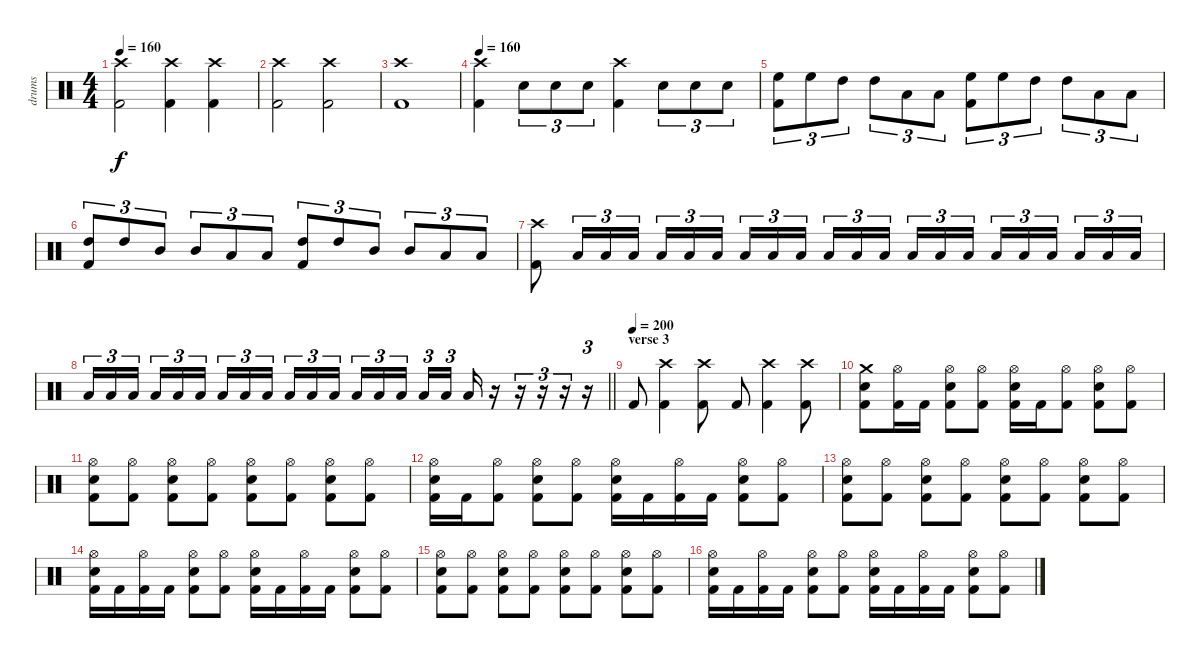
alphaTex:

\track ("drums" "drums") {instrument percussion}
\staff {score}
\articulation defaults
\ts (4 4)
\tempo 160
\clef neutral
\ks c
("Crash high (hit)" "Kick (hit) 2").2{dy f} ("Crash high (hit)" "Kick (hit) 2").4 ("Crash high (hit)" "Kick (hit) 2").4 |
("Crash high (hit)" "Kick (hit) 2").2 ("Crash high (hit)" "Kick (hit) 2").2 |
("Crash high (hit)" "Kick (hit) 2").1 |
\tempo 160
("Crash high (hit)" "Kick (hit) 2").4 "Snare (hit) 2".8{tu (3 2)} "Snare (hit) 2".8{tu (3 2)} "Snare (hit) 2".8{tu (3 2)} ("Crash high (hit)" "Kick (hit) 2").4 "Snare (hit) 2".8{tu (3 2)} "Snare (hit) 2".8{tu (3 2)} "Snare (hit) 2".8{tu (3 2)} |
("High Floor Tom (hit)" "Kick (hit) 2").8{tu (3 2)} "High Floor Tom (hit)".8{tu (3 2)} "High Tom (hit)".8{tu (3 2)} "High Tom (hit)".8{tu (3 2)} "Low Tom (hit)".8{tu (3 2)} "Low Tom (hit)".8{tu (3 2)} ("High Floor Tom (hit)" "Kick (hit) 2").8{tu (3 2)} "High Floor Tom (hit)".8{tu (3 2)} "High Tom (hit)".8{tu (3 2)} "High Tom (hit)".8{tu (3 2)} "Low Tom (hit)".8{tu (3 2)} "Low Tom (hit)".8{tu (3 2)} |
("High Tom (hit)" "Kick (hit) 2").8{tu (3 2)} "High Tom (hit)".8{tu (3 2)} "Mid Tom (hit)".8{tu (3 2)} "Mid Tom (hit)".8{tu (3 2)} "Low Tom (hit)".8{tu (3 2)} "Low Tom (hit)".8{tu (3 2)} ("High Tom (hit)" "Kick (hit) 2").8{tu (3 2)} "High Tom (hit)".8{tu (3 2)} "Mid Tom (hit)".8{tu (3 2)} "Mid Tom (hit)".8{tu (3 2)} "Low Tom (hit)".8{tu (3 2)} "Low Tom (hit)".8{tu (3 2)} |
("Crash high (hit)" "Kick (hit) 2").8 "Low Tom (hit)".16{tu (3 2) volume 3} "Low Tom (hit)".16{tu (3 2) volume 4} "Low Tom (hit)".16{tu (3 2) volume 5} "Low Tom (hit)".16{tu (3 2) volume 6} "Low Tom (hit)".16{tu (3 2) volume 7} "Low Tom (hit)".16{tu (3 2) volume 8 beam splitsecondary} "Low Tom (hit)".16{tu (3 2) volume 9} "Low Tom (hit)".16{tu (3 2) volume 10} "Low Tom (hit)".16{tu (3 2) volume 11} "Low Tom (hit)".16{tu (3 2)} "Low Tom (hit)".16{tu (3 2)} "Low Tom (hit)".16{tu (3 2) beam splitsecondary} "Low Tom (hit)".16{tu (3 2)} "Low Tom (hit)".16{tu (3 2)} "Low Tom (hit)".16{tu (3 2)} "Low Tom (hit)".16{tu (3 2)} "Low Tom (hit)".16{tu (3 2)} "Low Tom (hit)".16{tu (3 2) beam splitsecondary} "Low Tom (hit)".16{tu (3 2)} "Low Tom (hit)".16{tu (3 2)} "Low Tom (hit)".16{tu (3 2)} |
\barLineRight lightlight "Low Tom (hit)".16{tu (3 2)} "Low Tom (hit)".16{tu (3 2)} "Low Tom (hit)".16{tu (3 2) beam splitsecondary} "Low Tom (hit)".16{tu (3 2)} "Low Tom (hit)".16{tu (3 2)} "Low Tom (hit)".16{tu (3 2)} "Low Tom (hit)".16{tu (3 2)} "Low Tom (hit)".16{tu (3 2)} "Low Tom (hit)".16{tu (3 2) beam splitsecondary} "Low Tom (hit)".16{tu (3 2)} "Low Tom (hit)".16{tu (3 2)} "Low Tom (hit)".16{tu (3 2)} "Low Tom (hit)".16{tu (3 2)} "Low Tom (hit)".16{tu (3 2)} "Low Tom (hit)".16{tu (3 2) beam splitsecondary} "Low Tom (hit)".16{tu (3 2)} "Low Tom (hit)".16{tu (3 2) beam splitsecondary} "Low Tom (hit)".16
r.16 r.16{tu (3 2)} r.16{tu (3 2)} r.16{tu (3 2)} r.16{tu (3 2)} |
\section ("" "verse 3")
\tempo 120
\tempo (200)
"Kick (hit) 2".8 ("Crash high (hit)" "Kick (hit) 2").4 ("Crash high (hit)" "Kick (hit) 2").8 "Kick (hit) 2".8 ("Crash high (hit)" "Kick (hit) 2").4 ("Crash high (hit)" "Kick (hit) 2").8 |
("Crash medium (hit)" "Snare (hit) 2" "Kick (hit) 2").8 ("Hi-Hat (open)" "Kick (hit) 2").16 "Kick (hit) 2".16 ("Hi-Hat (open)" "Snare (hit) 2" "Kick (hit) 2").8 ("Hi-Hat (open)" "Kick (hit) 2").8 ("Hi-Hat (open)" "Snare (hit) 2" "Kick (hit) 2").16 "Kick (hit) 2".16 ("Hi-Hat (open)" "Kick (hit) 2").8 ("Hi-Hat (open)" "Snare (hit) 2" "Kick (hit) 2").8 ("Hi-Hat (open)" "Kick (hit) 2").8 |
("Hi-Hat (open)" "Snare (hit) 2" "Kick (hit) 2").8 ("Hi-Hat (open)" "Kick (hit) 2").8 ("Hi-Hat (open)" "Snare (hit) 2" "Kick (hit) 2").8 ("Hi-Hat (open)" "Kick (hit) 2").8 ("Hi-Hat (open)" "Snare (hit) 2" "Kick (hit) 2").8 ("Hi-Hat (open)" "Kick (hit) 2").8 ("Hi-Hat (open)" "Snare (hit) 2" "Kick (hit) 2").8 ("Hi-Hat (open)" "Kick (hit) 2").8 |
("Hi-Hat (open)" "Snare (hit) 2" "Kick (hit) 2").16 "Kick (hit) 2".16 ("Hi-Hat (open)" "Kick (hit) 2").8 ("Hi-Hat (open)" "Snare (hit) 2" "Kick (hit) 2").8 ("Hi-Hat (open)" "Kick (hit) 2").8 ("Hi-Hat (open)" "Snare (hit) 2" "Kick (hit) 2").16 "Kick (hit) 2".16 ("Hi-Hat (open)" "Kick (hit) 2").16 "Kick (hit) 2".16 ("Hi-Hat (open)" "Snare (hit) 2" "Kick (hit) 2").8 ("Hi-Hat (open)" "Kick (hit) 2").8 |
("Hi-Hat (open)" "Snare (hit) 2" "Kick (hit) 2").8 ("Hi-Hat (open)" "Kick (hit) 2").8 ("Hi-Hat (open)" "Snare (hit) 2" "Kick (hit) 2").8 ("Hi-Hat (open)" "Kick (hit) 2").8 ("Hi-Hat (open)" "Snare (hit) 2" "Kick (hit) 2").8 ("Hi-Hat (open)" "Kick (hit) 2").8 ("Hi-Hat (open)" "Snare (hit) 2" "Kick (hit) 2").8 ("Hi-Hat (open)" "Kick (hit) 2").8 |
("Hi-Hat (open)" "Snare (hit) 2" "Kick (hit) 2").16 "Kick (hit) 2".16 ("Hi-Hat (open)" "Kick (hit) 2").16 "Kick (hit) 2".16 ("Hi-Hat (open)" "Snare (hit) 2" "Kick (hit) 2").8 ("Hi-Hat (open)" "Kick (hit) 2").8 ("Hi-Hat (open)" "Snare (hit) 2" "Kick (hit) 2").16 "Kick (hit) 2".16 ("Hi-Hat (open)" "Kick (hit) 2").16 "Kick (hit) 2".16 ("Hi-Hat (open)" "Snare (hit) 2" "Kick (hit) 2").8 ("Hi-Hat (open)" "Kick (hit) 2").8 |
("Hi-Hat (open)" "Snare (hit) 2" "Kick (hit) 2").8 ("Hi-Hat (open)" "Kick (hit) 2").8 ("Hi-Hat (open)" "Snare (hit) 2" "Kick (hit) 2").8 ("Hi-Hat (open)" "Kick (hit) 2").8 ("Hi-Hat (open)" "Snare (hit) 2" "Kick (hit) 2").8 ("Hi-Hat (open)" "Kick (hit) 2").8 ("Hi-Hat (open)" "Snare (hit) 2" "Kick (hit) 2").8 ("Hi-Hat (open)" "Kick (hit) 2").8 |
("Hi-Hat (open)" "Snare (hit) 2" "Kick (hit) 2").16 "Kick (hit) 2".16 ("Hi-Hat (open)" "Kick (hit) 2").16 "Kick (hit) 2".16 ("Hi-Hat (open)" "Snare (hit) 2" "Kick (hit) 2").8 ("Hi-Hat (open)" "Kick (hit) 2").8 ("Hi-Hat (open)" "Snare (hit) 2" "Kick (hit) 2").16 "Kick (hit) 2".16 ("Hi-Hat (open)" "Kick (hit) 2").16 "Kick (hit) 2".16 ("Hi-Hat (open)" "Snare (hit) 2" "Kick (hit) 2").8 ("Hi-Hat (open)" "Kick (hit) 2").8
